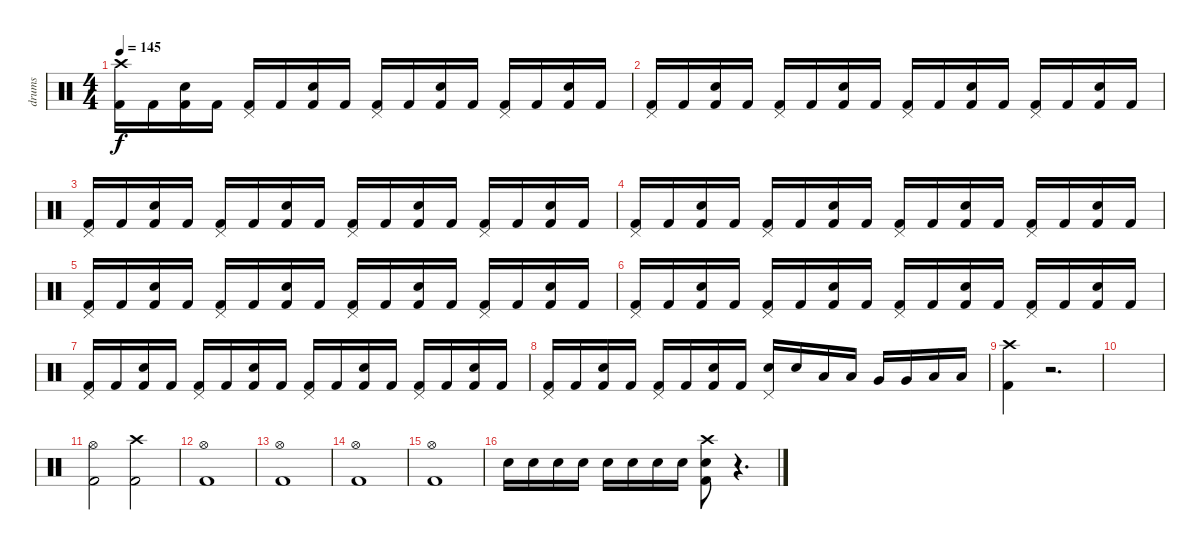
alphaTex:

\track ("drums" "drums") {instrument percussion}
\staff {score}
\articulation defaults
\ts (4 4)
\tempo 145
\clef neutral
\ks c
("Crash high (hit)" "Kick (hit) 2").16{dy f} "Kick (hit) 2".16 ("Electric Snare (hit)" "Kick (hit) 2").16 "Kick (hit) 2".16 ("Pedal Hi-Hat (hit)" "Kick (hit) 2").16 "Kick (hit) 2".16 ("Electric Snare (hit)" "Kick (hit) 2").16 "Kick (hit) 2".16 ("Pedal Hi-Hat (hit)" "Kick (hit) 2").16 "Kick (hit) 2".16 ("Electric Snare (hit)" "Kick (hit) 2").16 "Kick (hit) 2".16 ("Pedal Hi-Hat (hit)" "Kick (hit) 2").16 "Kick (hit) 2".16 ("Electric Snare (hit)" "Kick (hit) 2").16 "Kick (hit) 2".16 |
("Pedal Hi-Hat (hit)" "Kick (hit) 2").16 "Kick (hit) 2".16 ("Electric Snare (hit)" "Kick (hit) 2").16 "Kick (hit) 2".16 ("Pedal Hi-Hat (hit)" "Kick (hit) 2").16 "Kick (hit) 2".16 ("Electric Snare (hit)" "Kick (hit) 2").16 "Kick (hit) 2".16 ("Pedal Hi-Hat (hit)" "Kick (hit) 2").16 "Kick (hit) 2".16 ("Electric Snare (hit)" "Kick (hit) 2").16 "Kick (hit) 2".16 ("Pedal Hi-Hat (hit)" "Kick (hit) 2").16 "Kick (hit) 2".16 ("Electric Snare (hit)" "Kick (hit) 2").16 "Kick (hit) 2".16 |
("Pedal Hi-Hat (hit)" "Kick (hit) 2").16 "Kick (hit) 2".16 ("Electric Snare (hit)" "Kick (hit) 2").16 "Kick (hit) 2".16 ("Pedal Hi-Hat (hit)" "Kick (hit) 2").16 "Kick (hit) 2".16 ("Electric Snare (hit)" "Kick (hit) 2").16 "Kick (hit) 2".16 ("Pedal Hi-Hat (hit)" "Kick (hit) 2").16 "Kick (hit) 2".16 ("Electric Snare (hit)" "Kick (hit) 2").16 "Kick (hit) 2".16 ("Pedal Hi-Hat (hit)" "Kick (hit) 2").16 "Kick (hit) 2".16 ("Electric Snare (hit)" "Kick (hit) 2").16 "Kick (hit) 2".16 |
("Pedal Hi-Hat (hit)" "Kick (hit) 2").16 "Kick (hit) 2".16 ("Electric Snare (hit)" "Kick (hit) 2").16 "Kick (hit) 2".16 ("Pedal Hi-Hat (hit)" "Kick (hit) 2").16 "Kick (hit) 2".16 ("Electric Snare (hit)" "Kick (hit) 2").16 "Kick (hit) 2".16 ("Pedal Hi-Hat (hit)" "Kick (hit) 2").16 "Kick (hit) 2".16 ("Electric Snare (hit)" "Kick (hit) 2").16 "Kick (hit) 2".16 ("Pedal Hi-Hat (hit)" "Kick (hit) 2").16 "Kick (hit) 2".16 ("Electric Snare (hit)" "Kick (hit) 2").16 "Kick (hit) 2".16 |
("Pedal Hi-Hat (hit)" "Kick (hit) 2").16 "Kick (hit) 2".16 ("Electric Snare (hit)" "Kick (hit) 2").16 "Kick (hit) 2".16 ("Pedal Hi-Hat (hit)" "Kick (hit) 2").16 "Kick (hit) 2".16 ("Electric Snare (hit)" "Kick (hit) 2").16 "Kick (hit) 2".16 ("Pedal Hi-Hat (hit)" "Kick (hit) 2").16 "Kick (hit) 2".16 ("Electric Snare (hit)" "Kick (hit) 2").16 "Kick (hit) 2".16 ("Pedal Hi-Hat (hit)" "Kick (hit) 2").16 "Kick (hit) 2".16 ("Electric Snare (hit)" "Kick (hit) 2").16 "Kick (hit) 2".16 |
("Pedal Hi-Hat (hit)" "Kick (hit) 2").16 "Kick (hit) 2".16 ("Electric Snare (hit)" "Kick (hit) 2").16 "Kick (hit) 2".16 ("Pedal Hi-Hat (hit)" "Kick (hit) 2").16 "Kick (hit) 2".16 ("Electric Snare (hit)" "Kick (hit) 2").16 "Kick (hit) 2".16 ("Pedal Hi-Hat (hit)" "Kick (hit) 2").16 "Kick (hit) 2".16 ("Electric Snare (hit)" "Kick (hit) 2").16 "Kick (hit) 2".16 ("Pedal Hi-Hat (hit)" "Kick (hit) 2").16 "Kick (hit) 2".16 ("Electric Snare (hit)" "Kick (hit) 2").16 "Kick (hit) 2".16 |
("Pedal Hi-Hat (hit)" "Kick (hit) 2").16 "Kick (hit) 2".16 ("Electric Snare (hit)" "Kick (hit) 2").16 "Kick (hit) 2".16 ("Pedal Hi-Hat (hit)" "Kick (hit) 2").16 "Kick (hit) 2".16 ("Electric Snare (hit)" "Kick (hit) 2").16 "Kick (hit) 2".16 ("Pedal Hi-Hat (hit)" "Kick (hit) 2").16 "Kick (hit) 2".16 ("Electric Snare (hit)" "Kick (hit) 2").16 "Kick (hit) 2".16 ("Pedal Hi-Hat (hit)" "Kick (hit) 2").16 "Kick (hit) 2".16 ("Electric Snare (hit)" "Kick (hit) 2").16 "Kick (hit) 2".16 |
("Pedal Hi-Hat (hit)" "Kick (hit) 2").16 "Kick (hit) 2".16 ("Electric Snare (hit)" "Kick (hit) 2").16 "Kick (hit) 2".16 ("Pedal Hi-Hat (hit)" "Kick (hit) 2").16 "Kick (hit) 2".16 ("Electric Snare (hit)" "Kick (hit) 2").16 "Kick (hit) 2".16 ("Pedal Hi-Hat (hit)" "Snare (hit) 2").16 "Snare (hit) 2".16 "Low Tom (hit)".16 "Low Tom (hit)".16 "Very Low Tom (hit)".16 "Very Low Tom (hit)".16 "Low Floor Tom (hit)".16 "Low Floor Tom (hit)".16 |
("Crash high (hit)" "Kick (hit) 2").4 r.2{d} |
|
("Hi-Hat (open)" "Kick (hit) 2").2{volume 10} ("Crash high (hit)" "Kick (hit) 2").2 |
("Hi-Hat (open)" "Kick (hit) 2").1 |
("Hi-Hat (open)" "Kick (hit) 2").1 |
("Hi-Hat (open)" "Kick (hit) 2").1 |
("Hi-Hat (open)" "Kick (hit) 2").1 |
"Electric Snare (hit)".16{volume 13} "Electric Snare (hit)".16 "Electric Snare (hit)".16 "Electric Snare (hit)".16 "Electric Snare (hit)".16 "Electric Snare (hit)".16 "Electric Snare (hit)".16 "Electric Snare (hit)".16 ("Crash high (hit)" "Electric Snare (hit)" "Kick (hit) 2").8 r.4{d}
